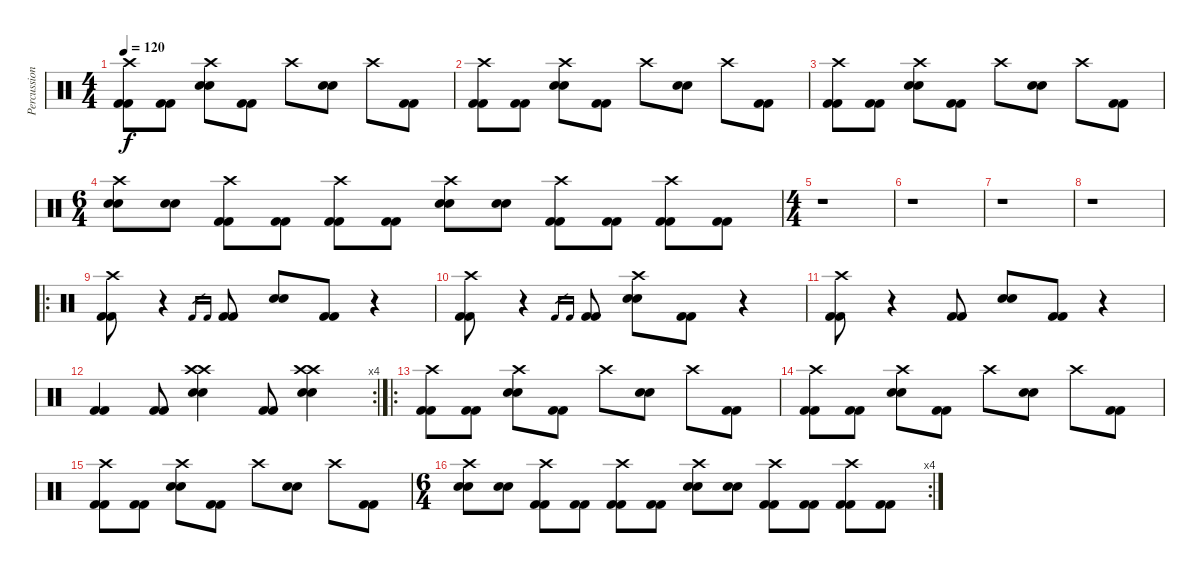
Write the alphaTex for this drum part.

\track ("Percussion" "Percussion") {instrument percussion}
\staff {score}
\articulation defaults
\ts (4 4)
\tempo 120
\clef neutral
\ks c
("Crash high (hit)" "Kick (hit) 2" "Kick (hit) 2").8{dy f} ("Kick (hit) 2" "Kick (hit) 2").8 ("Crash high (hit)" "Snare (hit) 2" "Snare (hit) 2").8 ("Kick (hit) 2" "Kick (hit) 2").8 "Crash high (hit)".8 ("Snare (hit) 2" "Snare (hit) 2").8 "Crash high (hit)".8 ("Kick (hit) 2" "Kick (hit) 2").8 |
("Crash high (hit)" "Kick (hit) 2" "Kick (hit) 2").8 ("Kick (hit) 2" "Kick (hit) 2").8 ("Crash high (hit)" "Snare (hit) 2" "Snare (hit) 2").8 ("Kick (hit) 2" "Kick (hit) 2").8 "Crash high (hit)".8 ("Snare (hit) 2" "Snare (hit) 2").8 "Crash high (hit)".8 ("Kick (hit) 2" "Kick (hit) 2").8 |
("Crash high (hit)" "Kick (hit) 2" "Kick (hit) 2").8 ("Kick (hit) 2" "Kick (hit) 2").8 ("Crash high (hit)" "Snare (hit) 2" "Snare (hit) 2").8 ("Kick (hit) 2" "Kick (hit) 2").8 "Crash high (hit)".8 ("Snare (hit) 2" "Snare (hit) 2").8 "Crash high (hit)".8 ("Kick (hit) 2" "Kick (hit) 2").8 |
\ts (6 4)
("Crash high (hit)" "Snare (hit) 2" "Snare (hit) 2").8 ("Snare (hit) 2" "Snare (hit) 2").8 ("Crash high (hit)" "Kick (hit) 2" "Kick (hit) 2").8 ("Kick (hit) 2" "Kick (hit) 2").8 ("Crash high (hit)" "Kick (hit) 2" "Kick (hit) 2").8 ("Kick (hit) 2" "Kick (hit) 2").8 ("Crash high (hit)" "Snare (hit) 2" "Snare (hit) 2").8 ("Snare (hit) 2" "Snare (hit) 2").8 ("Crash high (hit)" "Kick (hit) 2" "Kick (hit) 2").8 ("Kick (hit) 2" "Kick (hit) 2").8 ("Crash high (hit)" "Kick (hit) 2" "Kick (hit) 2").8 ("Kick (hit) 2" "Kick (hit) 2").8 |
\ts (4 4)
r.1 |
r.1 |
r.1 |
r.1 |
\ro
("Crash high (hit)" "Kick (hit) 2" "Kick (hit) 2").8 r.4 "Kick (hit) 2".16{gr} "Kick (hit) 2".16{gr} ("Kick (hit) 2" "Kick (hit) 2").8 ("Snare (hit) 2" "Snare (hit) 2").8 ("Kick (hit) 2" "Kick (hit) 2").8 r.4 |
("Crash high (hit)" "Kick (hit) 2" "Kick (hit) 2").8 r.4 "Kick (hit) 2".16{gr} "Kick (hit) 2".16{gr} ("Kick (hit) 2" "Kick (hit) 2").8 ("Crash high (hit)" "Snare (hit) 2" "Snare (hit) 2").8 ("Kick (hit) 2" "Kick (hit) 2").8 r.4 |
("Crash high (hit)" "Kick (hit) 2" "Kick (hit) 2").8 r.4 ("Kick (hit) 2" "Kick (hit) 2").8 ("Snare (hit) 2" "Snare (hit) 2").8 ("Kick (hit) 2" "Kick (hit) 2").8 r.4 |
\rc 4
("Kick (hit) 2" "Kick (hit) 2").4 ("Kick (hit) 2" "Kick (hit) 2").8 ("Crash high (hit)" "Crash high (hit)" "Snare (hit) 2" "Snare (hit) 2").4 ("Kick (hit) 2" "Kick (hit) 2").8 ("Crash high (hit)" "Crash high (hit)" "Snare (hit) 2" "Snare (hit) 2").4 |
\ro
("Crash high (hit)" "Kick (hit) 2" "Kick (hit) 2").8 ("Kick (hit) 2" "Kick (hit) 2").8 ("Crash high (hit)" "Snare (hit) 2" "Snare (hit) 2").8 ("Kick (hit) 2" "Kick (hit) 2").8 "Crash high (hit)".8 ("Snare (hit) 2" "Snare (hit) 2").8 "Crash high (hit)".8 ("Kick (hit) 2" "Kick (hit) 2").8 |
("Crash high (hit)" "Kick (hit) 2" "Kick (hit) 2").8 ("Kick (hit) 2" "Kick (hit) 2").8 ("Crash high (hit)" "Snare (hit) 2" "Snare (hit) 2").8 ("Kick (hit) 2" "Kick (hit) 2").8 "Crash high (hit)".8 ("Snare (hit) 2" "Snare (hit) 2").8 "Crash high (hit)".8 ("Kick (hit) 2" "Kick (hit) 2").8 |
("Crash high (hit)" "Kick (hit) 2" "Kick (hit) 2").8 ("Kick (hit) 2" "Kick (hit) 2").8 ("Crash high (hit)" "Snare (hit) 2" "Snare (hit) 2").8 ("Kick (hit) 2" "Kick (hit) 2").8 "Crash high (hit)".8 ("Snare (hit) 2" "Snare (hit) 2").8 "Crash high (hit)".8 ("Kick (hit) 2" "Kick (hit) 2").8 |
\rc 4
\ts (6 4)
("Crash high (hit)" "Snare (hit) 2" "Snare (hit) 2").8 ("Snare (hit) 2" "Snare (hit) 2").8 ("Crash high (hit)" "Kick (hit) 2" "Kick (hit) 2").8 ("Kick (hit) 2" "Kick (hit) 2").8 ("Crash high (hit)" "Kick (hit) 2" "Kick (hit) 2").8 ("Kick (hit) 2" "Kick (hit) 2").8 ("Crash high (hit)" "Snare (hit) 2" "Snare (hit) 2").8 ("Snare (hit) 2" "Snare (hit) 2").8 ("Crash high (hit)" "Kick (hit) 2" "Kick (hit) 2").8 ("Kick (hit) 2" "Kick (hit) 2").8 ("Crash high (hit)" "Kick (hit) 2" "Kick (hit) 2").8 ("Kick (hit) 2" "Kick (hit) 2").8
